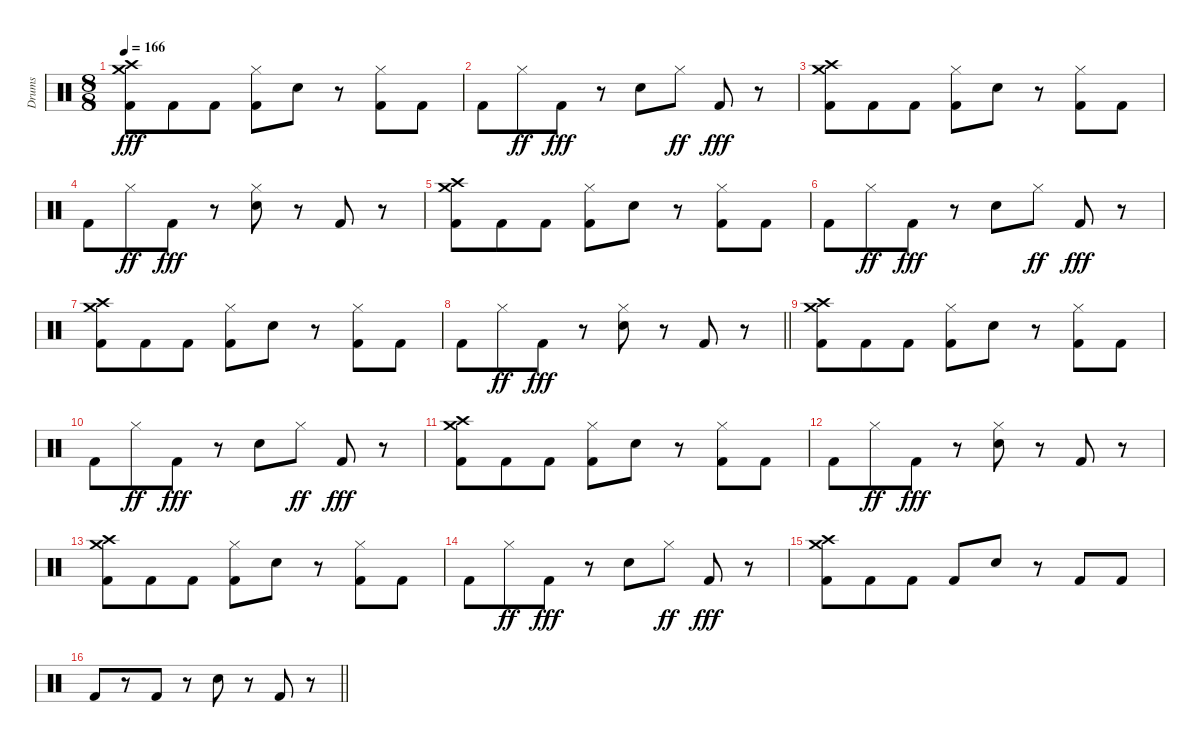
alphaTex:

\track ("Drums" "Drums") {instrument percussion}
\staff {score}
\articulation defaults
\ts (8 8)
\section ("" "")
\tempo 166
\clef neutral
\ks c
("Crash high (hit)" "Crash medium (hit)" "Kick (hit) 2").8{dy fff} "Kick (hit) 2".8 "Kick (hit) 2".8 ("Hi-Hat (closed)" "Kick (hit) 2").8 "Electric Snare (hit)".8 r.8 ("Hi-Hat (closed)" "Kick (hit) 2").8 "Kick (hit) 2".8 |
"Kick (hit) 2".8 "Hi-Hat (closed)".8{dy ff} "Kick (hit) 2".8{dy fff} r.8 "Electric Snare (hit)".8 "Hi-Hat (closed)".8{dy ff} "Kick (hit) 2".8{dy fff} r.8 |
("Crash high (hit)" "Crash medium (hit)" "Kick (hit) 2").8 "Kick (hit) 2".8 "Kick (hit) 2".8 ("Hi-Hat (closed)" "Kick (hit) 2").8 "Electric Snare (hit)".8 r.8 ("Hi-Hat (closed)" "Kick (hit) 2").8 "Kick (hit) 2".8 |
"Kick (hit) 2".8 "Hi-Hat (closed)".8{dy ff} "Kick (hit) 2".8{dy fff} r.8 ("Hi-Hat (closed)" "Electric Snare (hit)").8 r.8 "Kick (hit) 2".8 r.8 |
("Crash high (hit)" "Crash medium (hit)" "Kick (hit) 2").8 "Kick (hit) 2".8 "Kick (hit) 2".8 ("Hi-Hat (closed)" "Kick (hit) 2").8 "Electric Snare (hit)".8 r.8 ("Hi-Hat (closed)" "Kick (hit) 2").8 "Kick (hit) 2".8 |
"Kick (hit) 2".8 "Hi-Hat (closed)".8{dy ff} "Kick (hit) 2".8{dy fff} r.8 "Electric Snare (hit)".8 "Hi-Hat (closed)".8{dy ff} "Kick (hit) 2".8{dy fff} r.8 |
("Crash high (hit)" "Crash medium (hit)" "Kick (hit) 2").8 "Kick (hit) 2".8 "Kick (hit) 2".8 ("Hi-Hat (closed)" "Kick (hit) 2").8 "Electric Snare (hit)".8 r.8 ("Hi-Hat (closed)" "Kick (hit) 2").8 "Kick (hit) 2".8 |
\barLineRight lightlight "Kick (hit) 2".8 "Hi-Hat (closed)".8{dy ff} "Kick (hit) 2".8{dy fff}
r.8 ("Hi-Hat (closed)" "Electric Snare (hit)").8 r.8 "Kick (hit) 2".8 r.8 |
\section ("" "")
("Crash high (hit)" "Crash medium (hit)" "Kick (hit) 2").8 "Kick (hit) 2".8 "Kick (hit) 2".8 ("Hi-Hat (closed)" "Kick (hit) 2").8 "Electric Snare (hit)".8 r.8 ("Hi-Hat (closed)" "Kick (hit) 2").8 "Kick (hit) 2".8 |
"Kick (hit) 2".8 "Hi-Hat (closed)".8{dy ff} "Kick (hit) 2".8{dy fff} r.8 "Electric Snare (hit)".8 "Hi-Hat (closed)".8{dy ff} "Kick (hit) 2".8{dy fff} r.8 |
("Crash high (hit)" "Crash medium (hit)" "Kick (hit) 2").8 "Kick (hit) 2".8 "Kick (hit) 2".8 ("Hi-Hat (closed)" "Kick (hit) 2").8 "Electric Snare (hit)".8 r.8 ("Hi-Hat (closed)" "Kick (hit) 2").8 "Kick (hit) 2".8 |
"Kick (hit) 2".8 "Hi-Hat (closed)".8{dy ff} "Kick (hit) 2".8{dy fff} r.8 ("Hi-Hat (closed)" "Electric Snare (hit)").8 r.8 "Kick (hit) 2".8 r.8 |
("Crash high (hit)" "Crash medium (hit)" "Kick (hit) 2").8 "Kick (hit) 2".8 "Kick (hit) 2".8 ("Hi-Hat (closed)" "Kick (hit) 2").8 "Electric Snare (hit)".8 r.8 ("Hi-Hat (closed)" "Kick (hit) 2").8 "Kick (hit) 2".8 |
"Kick (hit) 2".8 "Hi-Hat (closed)".8{dy ff} "Kick (hit) 2".8{dy fff} r.8 "Electric Snare (hit)".8 "Hi-Hat (closed)".8{dy ff} "Kick (hit) 2".8{dy fff} r.8 |
("Crash high (hit)" "Crash medium (hit)" "Kick (hit) 2").8 "Kick (hit) 2".8 "Kick (hit) 2".8 "Kick (hit) 2".8 "Electric Snare (hit)".8 r.8 "Kick (hit) 2".8 "Kick (hit) 2".8 |
\barLineRight lightlight "Kick (hit) 2".8
r.8 "Kick (hit) 2".8 r.8 "Electric Snare (hit)".8 r.8 "Kick (hit) 2".8 r.8
